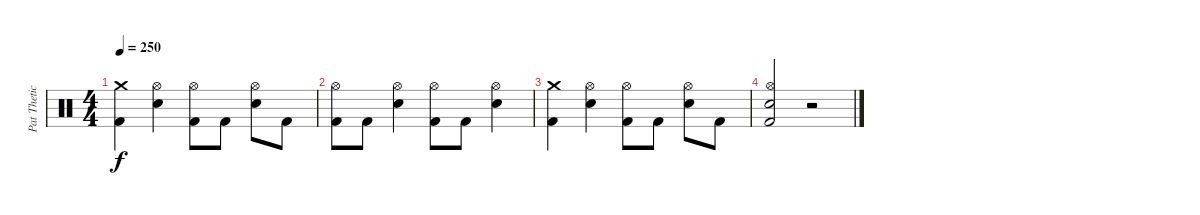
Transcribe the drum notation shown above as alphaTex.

\track ("Pat Thetic" "Pat Thetic") {instrument percussion}
\staff {score}
\articulation defaults
\ts (4 4)
\tempo 250
\clef neutral
\ks c
("Crash medium (hit)" "Kick (hit) 2").4{dy f} ("Hi-Hat (open)" "Snare (hit) 2").4 ("Hi-Hat (open)" "Kick (hit) 2").8 "Kick (hit) 2".8 ("Hi-Hat (open)" "Snare (hit) 2").8 "Kick (hit) 2".8 |
("Hi-Hat (open)" "Kick (hit) 2").8 "Kick (hit) 2".8 ("Hi-Hat (open)" "Snare (hit) 2").4 ("Hi-Hat (open)" "Kick (hit) 2").8 "Kick (hit) 2".8 ("Hi-Hat (open)" "Snare (hit) 2").4 |
("Crash medium (hit)" "Kick (hit) 2").4 ("Hi-Hat (open)" "Snare (hit) 2").4 ("Hi-Hat (open)" "Kick (hit) 2").8 "Kick (hit) 2".8 ("Hi-Hat (open)" "Snare (hit) 2").8 "Kick (hit) 2".8 |
("Hi-Hat (open)" "Snare (hit) 2" "Kick (hit) 2").2 r.2
